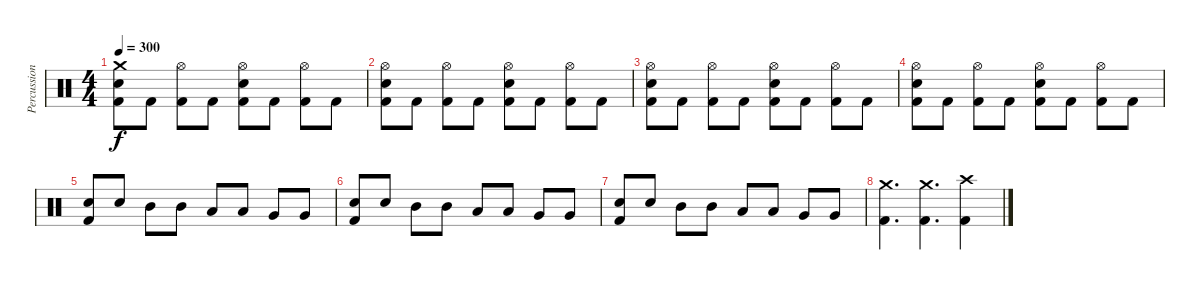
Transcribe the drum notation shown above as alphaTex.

\track ("Percussion" "Percussion") {instrument percussion}
\staff {score}
\articulation defaults
\ts (4 4)
\tempo 300
\clef neutral
\ks c
("Crash medium (hit)" "Snare (hit) 2" "Kick (hit) 2").8{dy f} "Kick (hit) 2".8 ("Hi-Hat (open)" "Kick (hit) 2").8 "Kick (hit) 2".8 ("Hi-Hat (open)" "Snare (hit) 2" "Kick (hit) 2").8 "Kick (hit) 2".8 ("Hi-Hat (open)" "Kick (hit) 2").8 "Kick (hit) 2".8 |
("Hi-Hat (open)" "Snare (hit) 2" "Kick (hit) 2").8 "Kick (hit) 2".8 ("Hi-Hat (open)" "Kick (hit) 2").8 "Kick (hit) 2".8 ("Hi-Hat (open)" "Snare (hit) 2" "Kick (hit) 2").8 "Kick (hit) 2".8 ("Hi-Hat (open)" "Kick (hit) 2").8 "Kick (hit) 2".8 |
("Hi-Hat (open)" "Snare (hit) 2" "Kick (hit) 2").8 "Kick (hit) 2".8 ("Hi-Hat (open)" "Kick (hit) 2").8 "Kick (hit) 2".8 ("Hi-Hat (open)" "Snare (hit) 2" "Kick (hit) 2").8 "Kick (hit) 2".8 ("Hi-Hat (open)" "Kick (hit) 2").8 "Kick (hit) 2".8 |
("Hi-Hat (open)" "Snare (hit) 2" "Kick (hit) 2").8 "Kick (hit) 2".8 ("Hi-Hat (open)" "Kick (hit) 2").8 "Kick (hit) 2".8 ("Hi-Hat (open)" "Snare (hit) 2" "Kick (hit) 2").8 "Kick (hit) 2".8 ("Hi-Hat (open)" "Kick (hit) 2").8 "Kick (hit) 2".8 |
("Snare (hit) 2" "Kick (hit) 2").8 "Snare (hit) 2".8 "Mid Tom (hit)".8 "Mid Tom (hit)".8 "Low Tom (hit)".8 "Low Tom (hit)".8 "Very Low Tom (hit)".8 "Very Low Tom (hit)".8 |
("Snare (hit) 2" "Kick (hit) 2").8 "Snare (hit) 2".8 "Mid Tom (hit)".8 "Mid Tom (hit)".8 "Low Tom (hit)".8 "Low Tom (hit)".8 "Very Low Tom (hit)".8 "Very Low Tom (hit)".8 |
("Snare (hit) 2" "Kick (hit) 2").8 "Snare (hit) 2".8 "Mid Tom (hit)".8 "Mid Tom (hit)".8 "Low Tom (hit)".8 "Low Tom (hit)".8 "Very Low Tom (hit)".8 "Very Low Tom (hit)".8 |
("Crash medium (hit)" "Kick (hit) 2").4{d} ("Crash medium (hit)" "Kick (hit) 2").4{d} ("Crash high (hit)" "Kick (hit) 2").4
